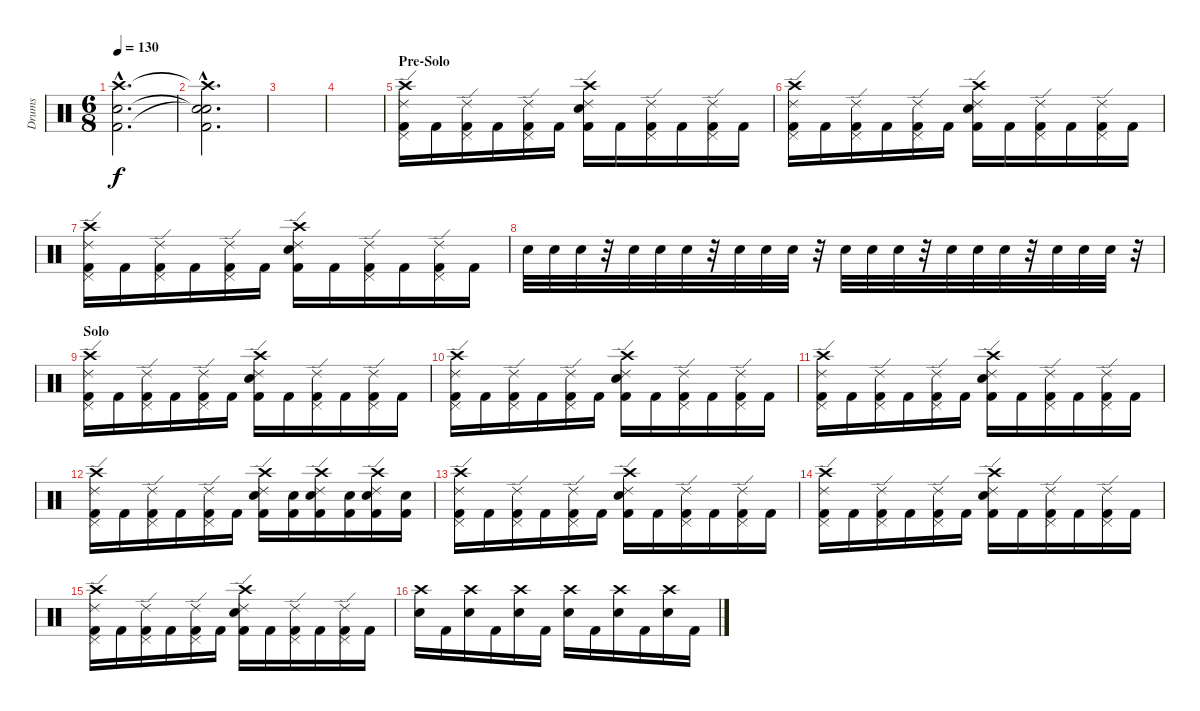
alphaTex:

\track ("Drums" "Drums") {instrument percussion}
\staff {score}
\articulation defaults
\ts (6 8)
\tempo 130
\clef neutral
\ks c
("Crash high (hit)"{hac} "Electric Snare (hit)"{hac} "Kick (hit) 2"{hac}).2{d dy f} |
("Crash high (hit)"{hac t} "Electric Snare (hit)"{hac t} "Snare (hit)"{hac t} "Kick (hit) 2"{hac}).2{d} |
|
|
\section ("" "Pre-Solo")
("Ride (edge) 2" "Crash high (hit)" "Pedal Hi-Hat (hit)" "Kick (hit) 2").16 "Kick (hit) 2".16 ("Ride (edge) 2" "Pedal Hi-Hat (hit)" "Kick (hit) 2").16 "Kick (hit) 2".16 ("Ride (edge) 2" "Pedal Hi-Hat (hit)" "Kick (hit) 2").16 "Kick (hit) 2".16 ("Ride (edge) 2" "Crash high (hit)" "Electric Snare (hit)" "Kick (hit) 2").16 "Kick (hit) 2".16 ("Ride (edge) 2" "Pedal Hi-Hat (hit)" "Kick (hit) 2").16 "Kick (hit) 2".16 ("Ride (edge) 2" "Pedal Hi-Hat (hit)" "Kick (hit) 2").16 "Kick (hit) 2".16 |
("Ride (edge) 2" "Crash high (hit)" "Pedal Hi-Hat (hit)" "Kick (hit) 2").16 "Kick (hit) 2".16 ("Ride (edge) 2" "Pedal Hi-Hat (hit)" "Kick (hit) 2").16 "Kick (hit) 2".16 ("Ride (edge) 2" "Pedal Hi-Hat (hit)" "Kick (hit) 2").16 "Kick (hit) 2".16 ("Ride (edge) 2" "Crash high (hit)" "Electric Snare (hit)" "Kick (hit) 2").16 "Kick (hit) 2".16 ("Ride (edge) 2" "Pedal Hi-Hat (hit)" "Kick (hit) 2").16 "Kick (hit) 2".16 ("Ride (edge) 2" "Pedal Hi-Hat (hit)" "Kick (hit) 2").16 "Kick (hit) 2".16 |
("Ride (edge) 2" "Crash high (hit)" "Pedal Hi-Hat (hit)" "Kick (hit) 2").16 "Kick (hit) 2".16 ("Ride (edge) 2" "Pedal Hi-Hat (hit)" "Kick (hit) 2").16 "Kick (hit) 2".16 ("Ride (edge) 2" "Pedal Hi-Hat (hit)" "Kick (hit) 2").16 "Kick (hit) 2".16 ("Ride (edge) 2" "Crash high (hit)" "Electric Snare (hit)" "Kick (hit) 2").16 "Kick (hit) 2".16 ("Ride (edge) 2" "Pedal Hi-Hat (hit)" "Kick (hit) 2").16 "Kick (hit) 2".16 ("Ride (edge) 2" "Pedal Hi-Hat (hit)" "Kick (hit) 2").16 "Kick (hit) 2".16 |
"Electric Snare (hit)".32 "Electric Snare (hit)".32 "Electric Snare (hit)".32 r.32 "Electric Snare (hit)".32 "Electric Snare (hit)".32 "Electric Snare (hit)".32 r.32 "Electric Snare (hit)".32 "Electric Snare (hit)".32 "Electric Snare (hit)".32 r.32 "Electric Snare (hit)".32 "Electric Snare (hit)".32 "Electric Snare (hit)".32 r.32 "Electric Snare (hit)".32 "Electric Snare (hit)".32 "Electric Snare (hit)".32 r.32 "Electric Snare (hit)".32 "Electric Snare (hit)".32 "Electric Snare (hit)".32 r.32 |
\section ("" "Solo")
("Ride (edge) 2" "Crash high (hit)" "Pedal Hi-Hat (hit)" "Kick (hit) 2").16 "Kick (hit) 2".16 ("Ride (edge) 2" "Pedal Hi-Hat (hit)" "Kick (hit) 2").16 "Kick (hit) 2".16 ("Ride (edge) 2" "Pedal Hi-Hat (hit)" "Kick (hit) 2").16 "Kick (hit) 2".16 ("Ride (edge) 2" "Crash high (hit)" "Electric Snare (hit)" "Kick (hit) 2").16 "Kick (hit) 2".16 ("Ride (edge) 2" "Pedal Hi-Hat (hit)" "Kick (hit) 2").16 "Kick (hit) 2".16 ("Ride (edge) 2" "Pedal Hi-Hat (hit)" "Kick (hit) 2").16 "Kick (hit) 2".16 |
("Ride (edge) 2" "Crash high (hit)" "Pedal Hi-Hat (hit)" "Kick (hit) 2").16 "Kick (hit) 2".16 ("Ride (edge) 2" "Pedal Hi-Hat (hit)" "Kick (hit) 2").16 "Kick (hit) 2".16 ("Ride (edge) 2" "Pedal Hi-Hat (hit)" "Kick (hit) 2").16 "Kick (hit) 2".16 ("Ride (edge) 2" "Crash high (hit)" "Electric Snare (hit)" "Kick (hit) 2").16 "Kick (hit) 2".16 ("Ride (edge) 2" "Pedal Hi-Hat (hit)" "Kick (hit) 2").16 "Kick (hit) 2".16 ("Ride (edge) 2" "Pedal Hi-Hat (hit)" "Kick (hit) 2").16 "Kick (hit) 2".16 |
("Ride (edge) 2" "Crash high (hit)" "Pedal Hi-Hat (hit)" "Kick (hit) 2").16 "Kick (hit) 2".16 ("Ride (edge) 2" "Pedal Hi-Hat (hit)" "Kick (hit) 2").16 "Kick (hit) 2".16 ("Ride (edge) 2" "Pedal Hi-Hat (hit)" "Kick (hit) 2").16 "Kick (hit) 2".16 ("Ride (edge) 2" "Crash high (hit)" "Electric Snare (hit)" "Kick (hit) 2").16 "Kick (hit) 2".16 ("Ride (edge) 2" "Pedal Hi-Hat (hit)" "Kick (hit) 2").16 "Kick (hit) 2".16 ("Ride (edge) 2" "Pedal Hi-Hat (hit)" "Kick (hit) 2").16 "Kick (hit) 2".16 |
("Ride (edge) 2" "Crash high (hit)" "Pedal Hi-Hat (hit)" "Kick (hit) 2").16 "Kick (hit) 2".16 ("Ride (edge) 2" "Pedal Hi-Hat (hit)" "Kick (hit) 2").16 "Kick (hit) 2".16 ("Ride (edge) 2" "Pedal Hi-Hat (hit)" "Kick (hit) 2").16 "Kick (hit) 2".16 ("Ride (edge) 2" "Crash high (hit)" "Electric Snare (hit)" "Kick (hit) 2").16 ("Electric Snare (hit)" "Kick (hit) 2").16 ("Ride (edge) 2" "Crash high (hit)" "Electric Snare (hit)" "Kick (hit) 2").16 ("Electric Snare (hit)" "Kick (hit) 2").16 ("Ride (edge) 2" "Crash high (hit)" "Electric Snare (hit)" "Kick (hit) 2").16 ("Electric Snare (hit)" "Kick (hit) 2").16 |
("Ride (edge) 2" "Crash high (hit)" "Pedal Hi-Hat (hit)" "Kick (hit) 2").16 "Kick (hit) 2".16 ("Ride (edge) 2" "Pedal Hi-Hat (hit)" "Kick (hit) 2").16 "Kick (hit) 2".16 ("Ride (edge) 2" "Pedal Hi-Hat (hit)" "Kick (hit) 2").16 "Kick (hit) 2".16 ("Ride (edge) 2" "Crash high (hit)" "Electric Snare (hit)" "Kick (hit) 2").16 "Kick (hit) 2".16 ("Ride (edge) 2" "Pedal Hi-Hat (hit)" "Kick (hit) 2").16 "Kick (hit) 2".16 ("Ride (edge) 2" "Pedal Hi-Hat (hit)" "Kick (hit) 2").16 "Kick (hit) 2".16 |
("Ride (edge) 2" "Crash high (hit)" "Pedal Hi-Hat (hit)" "Kick (hit) 2").16 "Kick (hit) 2".16 ("Ride (edge) 2" "Pedal Hi-Hat (hit)" "Kick (hit) 2").16 "Kick (hit) 2".16 ("Ride (edge) 2" "Pedal Hi-Hat (hit)" "Kick (hit) 2").16 "Kick (hit) 2".16 ("Ride (edge) 2" "Crash high (hit)" "Electric Snare (hit)" "Kick (hit) 2").16 "Kick (hit) 2".16 ("Ride (edge) 2" "Pedal Hi-Hat (hit)" "Kick (hit) 2").16 "Kick (hit) 2".16 ("Ride (edge) 2" "Pedal Hi-Hat (hit)" "Kick (hit) 2").16 "Kick (hit) 2".16 |
("Ride (edge) 2" "Crash high (hit)" "Pedal Hi-Hat (hit)" "Kick (hit) 2").16 "Kick (hit) 2".16 ("Ride (edge) 2" "Pedal Hi-Hat (hit)" "Kick (hit) 2").16 "Kick (hit) 2".16 ("Ride (edge) 2" "Pedal Hi-Hat (hit)" "Kick (hit) 2").16 "Kick (hit) 2".16 ("Ride (edge) 2" "Crash high (hit)" "Electric Snare (hit)" "Kick (hit) 2").16 "Kick (hit) 2".16 ("Ride (edge) 2" "Pedal Hi-Hat (hit)" "Kick (hit) 2").16 "Kick (hit) 2".16 ("Ride (edge) 2" "Pedal Hi-Hat (hit)" "Kick (hit) 2").16 "Kick (hit) 2".16 |
("Crash high (hit)" "Electric Snare (hit)").16 "Kick (hit) 2".16 ("Crash high (hit)" "Electric Snare (hit)").16 "Kick (hit) 2".16 ("Crash high (hit)" "Electric Snare (hit)").16 "Kick (hit) 2".16 ("Crash high (hit)" "Electric Snare (hit)").16 "Kick (hit) 2".16 ("Crash high (hit)" "Electric Snare (hit)").16 "Kick (hit) 2".16 ("Crash high (hit)" "Electric Snare (hit)").16 "Kick (hit) 2".16
